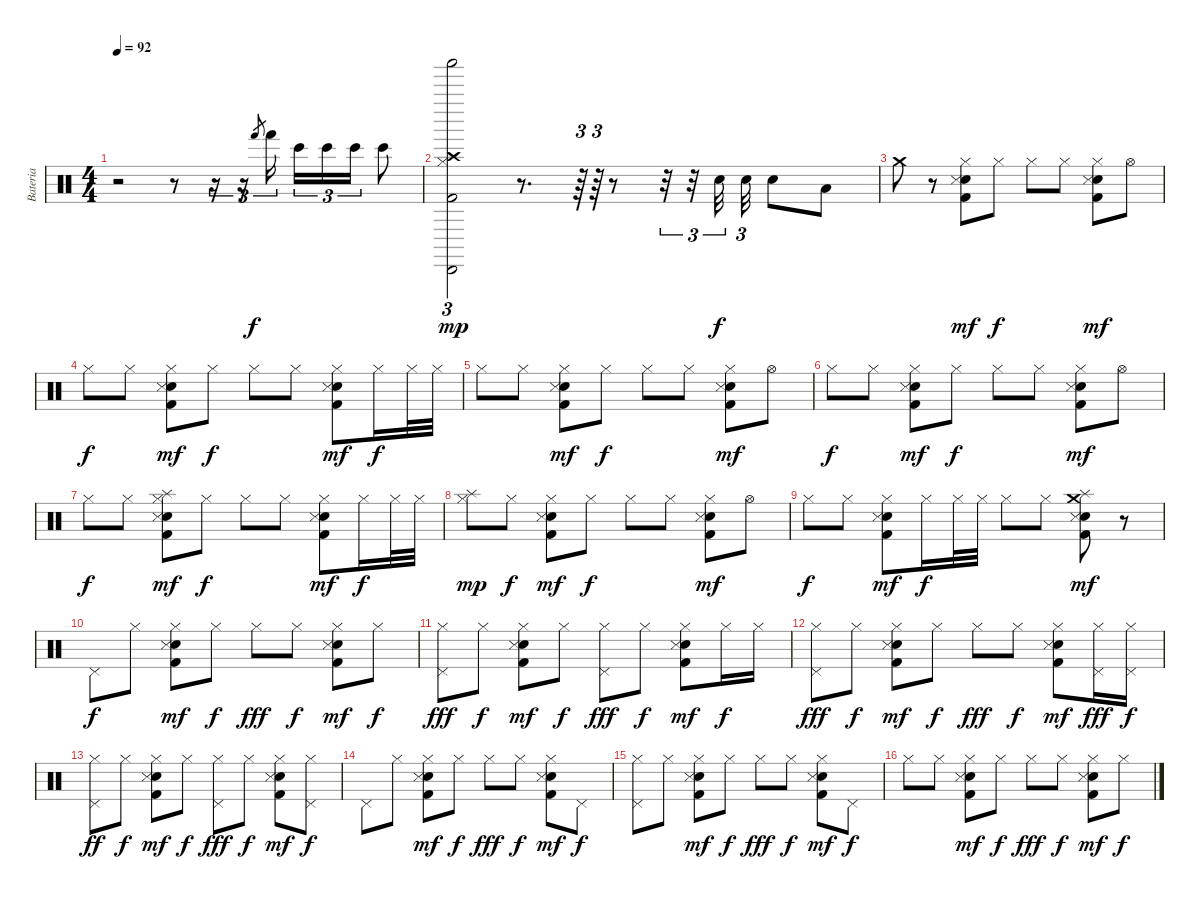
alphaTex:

\track ("Bateria" "Bateria") {instrument percussion}
\staff {score}
\articulation defaults
\ts (4 4)
\tempo 92
\clef neutral
\ks c
r.2{dy f} r.8 r.16{tu (3 2)} r.16{tu (3 2)} "Hand (hit)".8{gr} "Hand (hit)".16{tu (3 2)} "Bongo High (hit)".16{tu (3 2)} "Bongo High (hit)".16{tu (3 2)} "Bongo High (hit)".16{tu (3 2)} "Bongo High (hit)".8 |
("Hi-Hat (closed)" "Cabasa (hit)" "Shaker (hit)" "Crash high (hit)" "Kick (hit) 2").2{tu (3 2) dy mp} r.8{d} r.64{tu (3 2)} r.64{tu (3 2)} r.8 r.32{tu (3 2)} r.32{tu (3 2)} "Electric Snare (hit)".32{tu (3 2) dy f} "Electric Snare (hit)".32{tu (3 2)} "Electric Snare (hit)".8 "Low Tom (hit)".8 |
"Crash medium (hit)".8 r.8 ("Hi-Hat (closed)" "Electric Snare (hit)" "Snare (side stick) 3" "Kick (hit) 2").8{dy mf} "Hi-Hat (closed)".8{dy f} "Hi-Hat (closed)".8 "Hi-Hat (closed)".8 ("Hi-Hat (closed)" "Electric Snare (hit)" "Snare (side stick) 3" "Kick (hit) 2").8{dy mf} "Hi-Hat (open)".8 |
"Hi-Hat (closed)".8{dy f} "Hi-Hat (closed)".8 ("Hi-Hat (closed)" "Electric Snare (hit)" "Snare (side stick) 3" "Kick (hit) 2").8{dy mf} "Hi-Hat (closed)".8{dy f} "Hi-Hat (closed)".8 "Hi-Hat (closed)".8 ("Hi-Hat (closed)" "Electric Snare (hit)" "Snare (side stick) 3" "Kick (hit) 2").8{dy mf} "Hi-Hat (closed)".16{dy f} "Hi-Hat (closed)".32 "Hi-Hat (closed)".32 |
"Hi-Hat (closed)".8 "Hi-Hat (closed)".8 ("Hi-Hat (closed)" "Electric Snare (hit)" "Snare (side stick) 3" "Kick (hit) 2").8{dy mf} "Hi-Hat (closed)".8{dy f} "Hi-Hat (closed)".8 "Hi-Hat (closed)".8 ("Hi-Hat (closed)" "Electric Snare (hit)" "Snare (side stick) 3" "Kick (hit) 2").8{dy mf} "Hi-Hat (open)".8 |
"Hi-Hat (closed)".8{dy f} "Hi-Hat (closed)".8 ("Hi-Hat (closed)" "Electric Snare (hit)" "Snare (side stick) 3" "Kick (hit) 2").8{dy mf} "Hi-Hat (closed)".8{dy f} "Hi-Hat (closed)".8 "Hi-Hat (closed)".8 ("Hi-Hat (closed)" "Electric Snare (hit)" "Snare (side stick) 3" "Kick (hit) 2").8{dy mf} "Hi-Hat (open)".8 |
"Hi-Hat (closed)".8{dy f} "Hi-Hat (closed)".8 ("Splash (hit)" "Hi-Hat (closed)" "Electric Snare (hit)" "Snare (side stick) 3" "Kick (hit) 2").8{dy mf} "Hi-Hat (closed)".8{dy f} "Hi-Hat (closed)".8 "Hi-Hat (closed)".8 ("Hi-Hat (closed)" "Electric Snare (hit)" "Snare (side stick) 3" "Kick (hit) 2").8{dy mf} "Hi-Hat (closed)".16{dy f} "Hi-Hat (closed)".32 "Hi-Hat (closed)".32 |
("Splash (hit)" "Hi-Hat (closed)").8{dy mp} "Hi-Hat (closed)".8{dy f} ("Hi-Hat (closed)" "Electric Snare (hit)" "Snare (side stick) 3" "Kick (hit) 2").8{dy mf} "Hi-Hat (closed)".8{dy f} "Hi-Hat (closed)".8 "Hi-Hat (closed)".8 ("Hi-Hat (closed)" "Electric Snare (hit)" "Snare (side stick) 3" "Kick (hit) 2").8{dy mf} "Hi-Hat (open)".8 |
"Hi-Hat (closed)".8{dy f} "Hi-Hat (closed)".8 ("Hi-Hat (closed)" "Electric Snare (hit)" "Snare (side stick) 3" "Kick (hit) 2").8{dy mf} "Hi-Hat (closed)".16{dy f} "Hi-Hat (closed)".32 "Hi-Hat (closed)".32 "Hi-Hat (closed)".8 "Hi-Hat (closed)".8 ("Crash medium (hit)" "Splash (hit)" "Electric Snare (hit)" "Snare (side stick) 3" "Kick (hit) 2").8{dy mf} r.8 |
"Pedal Hi-Hat (hit)".8{dy f} "Hi-Hat (closed)".8 ("Hi-Hat (closed)" "Electric Snare (hit)" "Snare (side stick) 3" "Kick (hit) 2").8{dy mf} "Hi-Hat (closed)".8{dy f} "Hi-Hat (closed)".8{dy fff} "Hi-Hat (closed)".8{dy f} ("Hi-Hat (closed)" "Electric Snare (hit)" "Snare (side stick) 3" "Kick (hit) 2").8{dy mf} "Hi-Hat (closed)".8{dy f} |
("Hi-Hat (closed)" "Pedal Hi-Hat (hit)").8{dy fff} "Hi-Hat (closed)".8{dy f} ("Hi-Hat (closed)" "Electric Snare (hit)" "Snare (side stick) 3" "Kick (hit) 2").8{dy mf} "Hi-Hat (closed)".8{dy f} ("Hi-Hat (closed)" "Pedal Hi-Hat (hit)").8{dy fff} "Hi-Hat (closed)".8{dy f} ("Hi-Hat (closed)" "Electric Snare (hit)" "Snare (side stick) 3" "Kick (hit) 2").8{dy mf} "Hi-Hat (closed)".16{dy f} "Hi-Hat (closed)".16 |
("Hi-Hat (closed)" "Pedal Hi-Hat (hit)").8{dy fff} "Hi-Hat (closed)".8{dy f} ("Hi-Hat (closed)" "Electric Snare (hit)" "Snare (side stick) 3" "Kick (hit) 2").8{dy mf} "Hi-Hat (closed)".8{dy f} "Hi-Hat (closed)".8{dy fff} "Hi-Hat (closed)".8{dy f} ("Hi-Hat (closed)" "Electric Snare (hit)" "Snare (side stick) 3" "Kick (hit) 2").8{dy mf} ("Hi-Hat (closed)" "Pedal Hi-Hat (hit)").16{dy fff} ("Hi-Hat (closed)" "Pedal Hi-Hat (hit)").16{dy f} |
("Hi-Hat (closed)" "Pedal Hi-Hat (hit)").8{dy ff} "Hi-Hat (closed)".8{dy f} ("Hi-Hat (closed)" "Electric Snare (hit)" "Snare (side stick) 3" "Kick (hit) 2").8{dy mf} "Hi-Hat (closed)".8{dy f} ("Hi-Hat (closed)" "Pedal Hi-Hat (hit)").8{dy fff} "Hi-Hat (closed)".8{dy f} ("Hi-Hat (closed)" "Electric Snare (hit)" "Snare (side stick) 3" "Kick (hit) 2").8{dy mf} ("Hi-Hat (closed)" "Pedal Hi-Hat (hit)").8{dy f} |
"Pedal Hi-Hat (hit)".8 "Hi-Hat (closed)".8 ("Hi-Hat (closed)" "Electric Snare (hit)" "Snare (side stick) 3" "Kick (hit) 2").8{dy mf} "Hi-Hat (closed)".8{dy f} "Hi-Hat (closed)".8{dy fff} "Hi-Hat (closed)".8{dy f} ("Hi-Hat (closed)" "Electric Snare (hit)" "Snare (side stick) 3" "Kick (hit) 2").8{dy mf} "Pedal Hi-Hat (hit)".8{dy f} |
("Pedal Hi-Hat (hit)" "Hi-Hat (closed)").8 "Hi-Hat (closed)".8 ("Hi-Hat (closed)" "Electric Snare (hit)" "Snare (side stick) 3" "Kick (hit) 2").8{dy mf} "Hi-Hat (closed)".8{dy f} "Hi-Hat (closed)".8{dy fff} "Hi-Hat (closed)".8{dy f} ("Hi-Hat (closed)" "Electric Snare (hit)" "Snare (side stick) 3" "Kick (hit) 2").8{dy mf} "Pedal Hi-Hat (hit)".8{dy f} |
"Hi-Hat (closed)".8 "Hi-Hat (closed)".8 ("Hi-Hat (closed)" "Electric Snare (hit)" "Snare (side stick) 3" "Kick (hit) 2").8{dy mf} "Hi-Hat (closed)".8{dy f} "Hi-Hat (closed)".8{dy fff} "Hi-Hat (closed)".8{dy f} ("Hi-Hat (closed)" "Electric Snare (hit)" "Snare (side stick) 3" "Kick (hit) 2").8{dy mf} "Hi-Hat (closed)".8{dy f}
